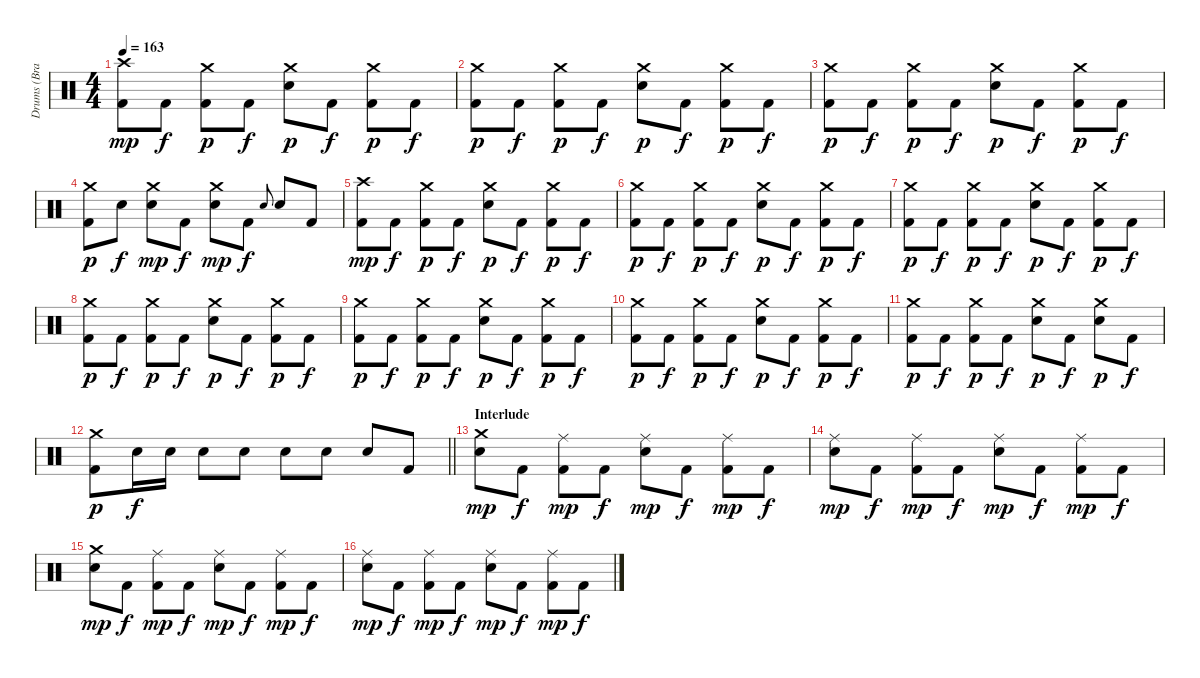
\track ("Drums (Brandon Saller)" "Drums (Bra") {instrument percussion}
\staff {score}
\articulation defaults
\ts (4 4)
\tempo 163
\clef neutral
\ks c
("Crash high (hit)" "Kick (hit) 2").8{dy mp} "Kick (hit) 2".8{dy f} ("Crash medium (hit)" "Kick (hit) 2").8{dy p} "Kick (hit) 2".8{dy f} ("Crash medium (hit)" "Electric Snare (hit)").8{dy p} "Kick (hit) 2".8{dy f} ("Crash medium (hit)" "Kick (hit) 2").8{dy p} "Kick (hit) 2".8{dy f} |
("Crash medium (hit)" "Kick (hit) 2").8{dy p} "Kick (hit) 2".8{dy f} ("Crash medium (hit)" "Kick (hit) 2").8{dy p} "Kick (hit) 2".8{dy f} ("Crash medium (hit)" "Electric Snare (hit)").8{dy p} "Kick (hit) 2".8{dy f} ("Crash medium (hit)" "Kick (hit) 2").8{dy p} "Kick (hit) 2".8{dy f} |
("Crash medium (hit)" "Kick (hit) 2").8{dy p} "Kick (hit) 2".8{dy f} ("Crash medium (hit)" "Kick (hit) 2").8{dy p} "Kick (hit) 2".8{dy f} ("Crash medium (hit)" "Electric Snare (hit)").8{dy p} "Kick (hit) 2".8{dy f} ("Crash medium (hit)" "Kick (hit) 2").8{dy p} "Kick (hit) 2".8{dy f} |
("Crash medium (hit)" "Kick (hit) 2").8{dy p} "Electric Snare (hit)".8{dy f} ("Crash medium (hit)" "Electric Snare (hit)").8{dy mp} "Kick (hit) 2".8{dy f} ("Crash medium (hit)" "Electric Snare (hit)").8{dy mp} "Kick (hit) 2".8{dy f} "Electric Snare (hit)".8{gr onbeat} "Electric Snare (hit)".8 "Kick (hit) 2".8 |
("Crash high (hit)" "Kick (hit) 2").8{dy mp} "Kick (hit) 2".8{dy f} ("Crash medium (hit)" "Kick (hit) 2").8{dy p} "Kick (hit) 2".8{dy f} ("Crash medium (hit)" "Electric Snare (hit)").8{dy p} "Kick (hit) 2".8{dy f} ("Crash medium (hit)" "Kick (hit) 2").8{dy p} "Kick (hit) 2".8{dy f} |
("Crash medium (hit)" "Kick (hit) 2").8{dy p} "Kick (hit) 2".8{dy f} ("Crash medium (hit)" "Kick (hit) 2").8{dy p} "Kick (hit) 2".8{dy f} ("Crash medium (hit)" "Electric Snare (hit)").8{dy p} "Kick (hit) 2".8{dy f} ("Crash medium (hit)" "Kick (hit) 2").8{dy p} "Kick (hit) 2".8{dy f} |
("Crash medium (hit)" "Kick (hit) 2").8{dy p} "Kick (hit) 2".8{dy f} ("Crash medium (hit)" "Kick (hit) 2").8{dy p} "Kick (hit) 2".8{dy f} ("Crash medium (hit)" "Electric Snare (hit)").8{dy p} "Kick (hit) 2".8{dy f} ("Crash medium (hit)" "Kick (hit) 2").8{dy p} "Kick (hit) 2".8{dy f} |
("Crash medium (hit)" "Kick (hit) 2").8{dy p} "Kick (hit) 2".8{dy f} ("Crash medium (hit)" "Kick (hit) 2").8{dy p} "Kick (hit) 2".8{dy f} ("Crash medium (hit)" "Electric Snare (hit)").8{dy p} "Kick (hit) 2".8{dy f} ("Crash medium (hit)" "Kick (hit) 2").8{dy p} "Kick (hit) 2".8{dy f} |
("Crash medium (hit)" "Kick (hit) 2").8{dy p} "Kick (hit) 2".8{dy f} ("Crash medium (hit)" "Kick (hit) 2").8{dy p} "Kick (hit) 2".8{dy f} ("Crash medium (hit)" "Electric Snare (hit)").8{dy p} "Kick (hit) 2".8{dy f} ("Crash medium (hit)" "Kick (hit) 2").8{dy p} "Kick (hit) 2".8{dy f} |
("Crash medium (hit)" "Kick (hit) 2").8{dy p} "Kick (hit) 2".8{dy f} ("Crash medium (hit)" "Kick (hit) 2").8{dy p} "Kick (hit) 2".8{dy f} ("Crash medium (hit)" "Electric Snare (hit)").8{dy p} "Kick (hit) 2".8{dy f} ("Crash medium (hit)" "Kick (hit) 2").8{dy p} "Kick (hit) 2".8{dy f} |
("Crash medium (hit)" "Kick (hit) 2").8{dy p} "Kick (hit) 2".8{dy f} ("Crash medium (hit)" "Kick (hit) 2").8{dy p} "Kick (hit) 2".8{dy f} ("Crash medium (hit)" "Electric Snare (hit)").8{dy p} "Kick (hit) 2".8{dy f} ("Crash medium (hit)" "Electric Snare (hit)").8{dy p} "Kick (hit) 2".8{dy f} |
\barLineRight lightlight
("Crash medium (hit)" "Kick (hit) 2").8{dy p} "Electric Snare (hit)".16{dy f} "Electric Snare (hit)".16 "Electric Snare (hit)".8 "Electric Snare (hit)".8 "Electric Snare (hit)".8 "Electric Snare (hit)".8 "Electric Snare (hit)".8 "Kick (hit) 2".8 |
\section ("" "Interlude")
("Crash medium (hit)" "Electric Snare (hit)").8{dy mp} "Kick (hit) 2".8{dy f} ("Ride (middle)" "Kick (hit) 2").8{dy mp} "Kick (hit) 2".8{dy f} ("Ride (middle)" "Electric Snare (hit)").8{dy mp} "Kick (hit) 2".8{dy f} ("Ride (middle)" "Kick (hit) 2").8{dy mp} "Kick (hit) 2".8{dy f} |
("Ride (middle)" "Electric Snare (hit)").8{dy mp} "Kick (hit) 2".8{dy f} ("Ride (middle)" "Kick (hit) 2").8{dy mp} "Kick (hit) 2".8{dy f} ("Ride (middle)" "Electric Snare (hit)").8{dy mp} "Kick (hit) 2".8{dy f} ("Ride (middle)" "Kick (hit) 2").8{dy mp} "Kick (hit) 2".8{dy f} |
("Crash medium (hit)" "Electric Snare (hit)").8{dy mp} "Kick (hit) 2".8{dy f} ("Ride (middle)" "Kick (hit) 2").8{dy mp} "Kick (hit) 2".8{dy f} ("Ride (middle)" "Electric Snare (hit)").8{dy mp} "Kick (hit) 2".8{dy f} ("Ride (middle)" "Kick (hit) 2").8{dy mp} "Kick (hit) 2".8{dy f} |
("Ride (middle)" "Electric Snare (hit)").8{dy mp} "Kick (hit) 2".8{dy f} ("Ride (middle)" "Kick (hit) 2").8{dy mp} "Kick (hit) 2".8{dy f} ("Ride (middle)" "Electric Snare (hit)").8{dy mp} "Kick (hit) 2".8{dy f} ("Ride (middle)" "Kick (hit) 2").8{dy mp} "Kick (hit) 2".8{dy f}
